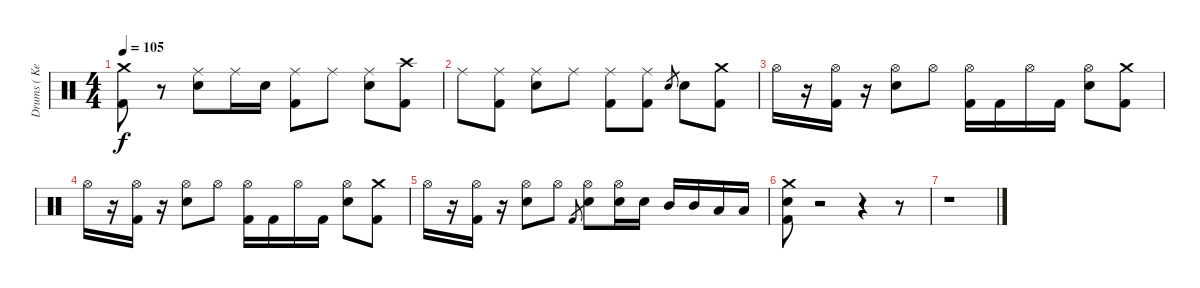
\track ("Drums ( Kevin Miller )" "Drums ( Ke") {instrument percussion}
\staff {score}
\articulation defaults
\ts (4 4)
\tempo 105
\clef neutral
\ks c
("Crash medium (hit)" "Kick (hit) 2").8{dy f} r.8 ("Ride (middle)" "Snare (hit) 2").8 "Ride (middle)".16 "Snare (hit) 2".16 ("Ride (middle)" "Kick (hit) 2").8 "Ride (middle)".8 ("Ride (middle)" "Snare (hit) 2").8 ("Crash high (hit)" "Kick (hit) 2").8 |
"Ride (middle)".8 ("Ride (middle)" "Kick (hit) 2").8 ("Ride (middle)" "Snare (hit) 2").8 "Ride (middle)".8 ("Ride (middle)" "Kick (hit) 2").8 ("Ride (middle)" "Kick (hit) 2").8 "Snare (hit) 2".8{gr} "Snare (hit) 2".8 ("Crash medium (hit)" "Kick (hit) 2").8 |
"Hi-Hat (open)".16 r.16 ("Hi-Hat (open)" "Kick (hit) 2").16 r.16 ("Hi-Hat (open)" "Snare (hit) 2").8 "Hi-Hat (open)".8 ("Hi-Hat (open)" "Kick (hit) 2").16 "Kick (hit) 2".16 "Hi-Hat (open)".16 "Kick (hit) 2".16 ("Hi-Hat (open)" "Snare (hit) 2").8 ("Crash medium (hit)" "Kick (hit) 2").8 |
"Hi-Hat (open)".16 r.16 ("Hi-Hat (open)" "Kick (hit) 2").16 r.16 ("Hi-Hat (open)" "Snare (hit) 2").8 "Hi-Hat (open)".8 ("Hi-Hat (open)" "Kick (hit) 2").16 "Kick (hit) 2".16 "Hi-Hat (open)".16 "Kick (hit) 2".16 ("Hi-Hat (open)" "Snare (hit) 2").8 ("Crash medium (hit)" "Kick (hit) 2").8 |
"Hi-Hat (open)".16 r.16 ("Hi-Hat (open)" "Kick (hit) 2").16 r.16 ("Hi-Hat (open)" "Snare (hit) 2").8 "Hi-Hat (open)".8 "Kick (hit) 2".8{gr} ("Hi-Hat (open)" "Snare (hit) 2").8 ("Hi-Hat (open)" "Snare (hit) 2").16 "Snare (hit) 2".16 "Mid Tom (hit)".16 "Mid Tom (hit)".16 "Low Tom (hit)".16 "Low Tom (hit)".16 |
("Crash medium (hit)" "Snare (hit) 2" "Kick (hit) 2").8 r.2 r.4 r.8 |
r.1
